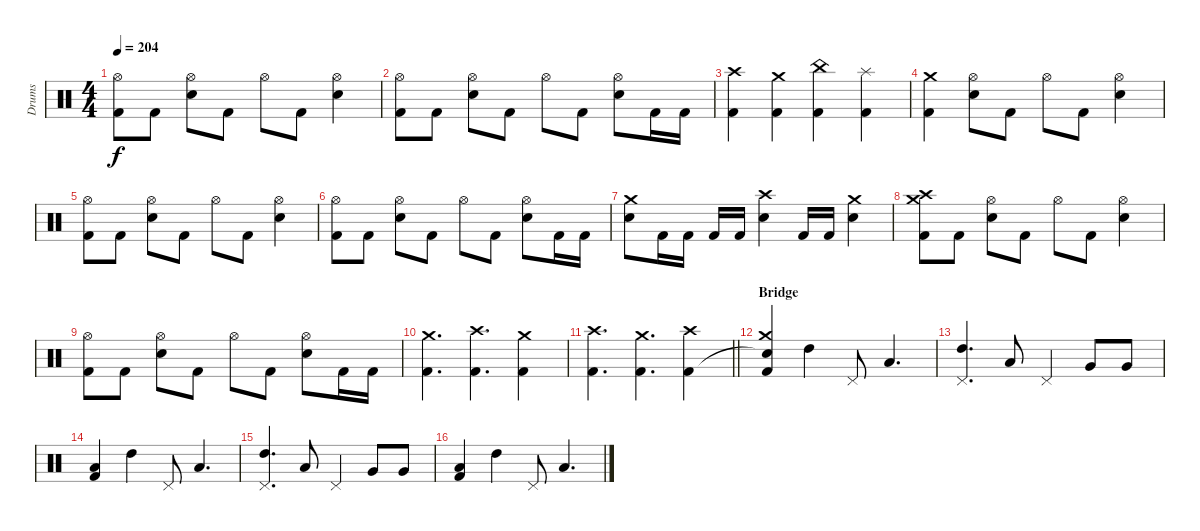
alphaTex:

\track ("Drums" "Drums") {instrument percussion}
\staff {score}
\articulation defaults
\ts (4 4)
\tempo 204
\clef neutral
\ks c
("Hi-Hat (open)" "Kick (hit) 2").8{dy f} "Kick (hit) 2".8 ("Hi-Hat (open)" "Electric Snare (hit)").8 "Kick (hit) 2".8 "Hi-Hat (open)".8 "Kick (hit) 2".8 ("Hi-Hat (open)" "Electric Snare (hit)").4 |
("Hi-Hat (open)" "Kick (hit) 2").8 "Kick (hit) 2".8 ("Hi-Hat (open)" "Electric Snare (hit)").8 "Kick (hit) 2".8 "Hi-Hat (open)".8 "Kick (hit) 2".8 ("Hi-Hat (open)" "Electric Snare (hit)").8 "Kick (hit) 2".16 "Kick (hit) 2".16 |
("Crash high (hit)" "Kick (hit) 2").4 ("Crash medium (hit)" "Kick (hit) 2").4 ("China (hit)" "Kick (hit) 2").4 ("Splash (hit)" "Kick (hit) 2").4 |
("Crash medium (hit)" "Kick (hit) 2").4 ("Hi-Hat (open)" "Electric Snare (hit)").8 "Kick (hit) 2".8 "Hi-Hat (open)".8 "Kick (hit) 2".8 ("Hi-Hat (open)" "Electric Snare (hit)").4 |
("Hi-Hat (open)" "Kick (hit) 2").8 "Kick (hit) 2".8 ("Hi-Hat (open)" "Electric Snare (hit)").8 "Kick (hit) 2".8 "Hi-Hat (open)".8 "Kick (hit) 2".8 ("Hi-Hat (open)" "Electric Snare (hit)").4 |
("Hi-Hat (open)" "Kick (hit) 2").8 "Kick (hit) 2".8 ("Hi-Hat (open)" "Electric Snare (hit)").8 "Kick (hit) 2".8 "Hi-Hat (open)".8 "Kick (hit) 2".8 ("Hi-Hat (open)" "Electric Snare (hit)").8 "Kick (hit) 2".16 "Kick (hit) 2".16 |
("Crash medium (hit)" "Electric Snare (hit)").8 "Kick (hit) 2".16 "Kick (hit) 2".16 "Kick (hit) 2".16 "Kick (hit) 2".16 ("Crash high (hit)" "Electric Snare (hit)").4 "Kick (hit) 2".16 "Kick (hit) 2".16 ("Crash medium (hit)" "Electric Snare (hit)").4 |
("Crash high (hit)" "Crash medium (hit)" "Kick (hit) 2").8 "Kick (hit) 2".8 ("Hi-Hat (open)" "Electric Snare (hit)").8 "Kick (hit) 2".8 "Hi-Hat (open)".8 "Kick (hit) 2".8 ("Hi-Hat (open)" "Electric Snare (hit)").4 |
("Hi-Hat (open)" "Kick (hit) 2").8 "Kick (hit) 2".8 ("Hi-Hat (open)" "Electric Snare (hit)").8 "Kick (hit) 2".8 "Hi-Hat (open)".8 "Kick (hit) 2".8 ("Hi-Hat (open)" "Electric Snare (hit)").8 "Kick (hit) 2".16 "Kick (hit) 2".16 |
("Crash medium (hit)" "Kick (hit) 2").4{d} ("Crash high (hit)" "Kick (hit) 2").4{d} ("Crash medium (hit)" "Kick (hit) 2").4 |
\barLineRight lightlight
("Crash high (hit)" "Kick (hit) 2").4{d} ("Crash medium (hit)" "Kick (hit) 2").4{d} ("Crash high (hit)" "Kick (hit) 2").4 |
\section ("" "Bridge")
("Crash medium (hit)" "Snare (hit)"{t} "Kick (hit) 2").4 "High Tom (hit)".4 "Pedal Hi-Hat (hit)".8 "Low Tom (hit)".4{d} |
("High Tom (hit)" "Pedal Hi-Hat (hit)").4{d} "Low Tom (hit)".8 "Pedal Hi-Hat (hit)".4 "Very Low Tom (hit)".8 "Very Low Tom (hit)".8 |
("Low Floor Tom (hit)" "Kick (hit) 2").4 "High Tom (hit)".4 "Pedal Hi-Hat (hit)".8 "Low Tom (hit)".4{d} |
("High Tom (hit)" "Pedal Hi-Hat (hit)").4{d} "Low Tom (hit)".8 "Pedal Hi-Hat (hit)".4 "Very Low Tom (hit)".8 "Very Low Tom (hit)".8 |
("Low Floor Tom (hit)" "Kick (hit) 2").4 "High Tom (hit)".4 "Pedal Hi-Hat (hit)".8 "Low Tom (hit)".4{d}
